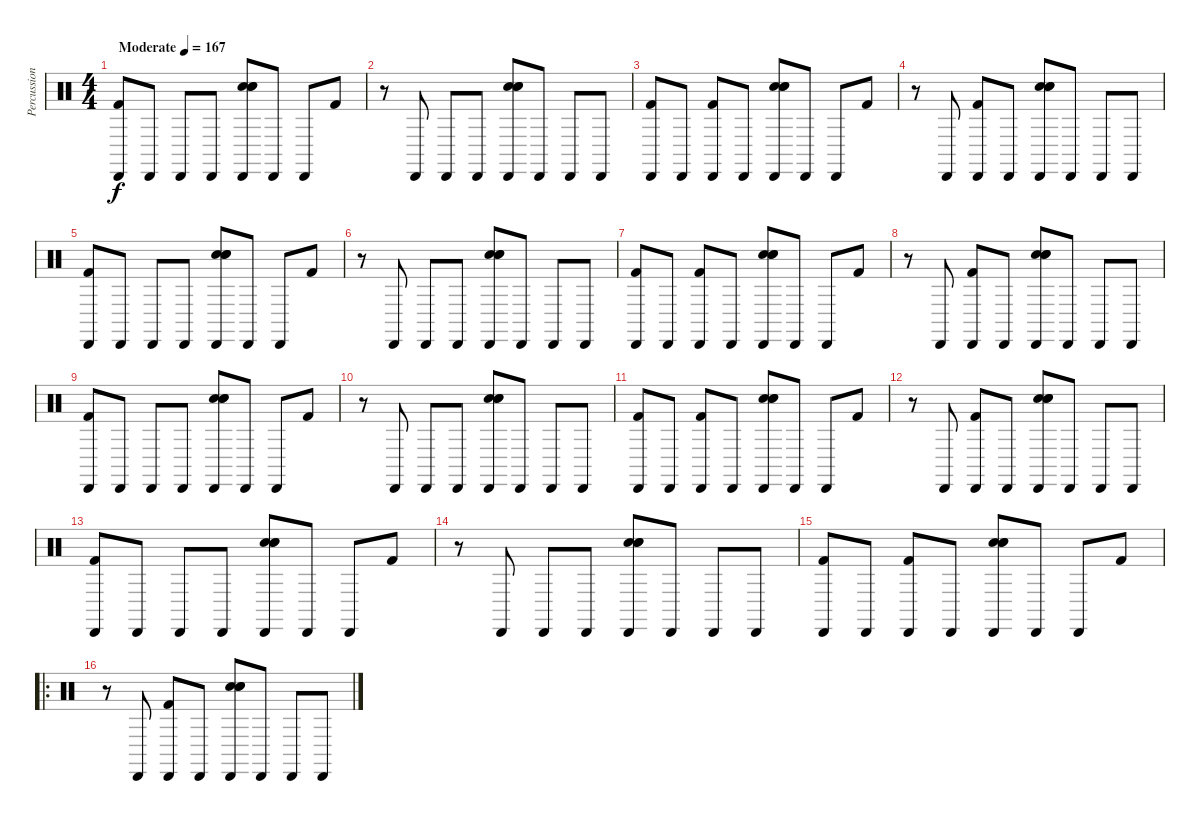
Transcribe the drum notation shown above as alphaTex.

\track ("Percussion" "Percussion") {instrument percussion}
\staff {score}
\articulation defaults
\ts (4 4)
\tempo (167 "Moderate")
\clef neutral
\ks c
("Cabasa (hit)" "Kick (hit) 2").8{dy f} "Cabasa (hit)".8 "Cabasa (hit)".8 "Cabasa (hit)".8 ("Hand Clap (hit)" "Cabasa (hit)" "Electric Snare (hit)" "Snare (hit) 2").8 "Cabasa (hit)".8 "Cabasa (hit)".8 "Kick (hit) 2".8 |
r.8 "Cabasa (hit)".8 "Cabasa (hit)".8 "Cabasa (hit)".8 ("Hand Clap (hit)" "Cabasa (hit)" "Electric Snare (hit)" "Snare (hit) 2").8 "Cabasa (hit)".8 "Cabasa (hit)".8 "Cabasa (hit)".8 |
("Cabasa (hit)" "Kick (hit) 2").8 "Cabasa (hit)".8 ("Cabasa (hit)" "Kick (hit) 2").8 "Cabasa (hit)".8 ("Hand Clap (hit)" "Cabasa (hit)" "Electric Snare (hit)" "Snare (hit) 2").8 "Cabasa (hit)".8 "Cabasa (hit)".8 "Kick (hit) 2".8 |
r.8 "Cabasa (hit)".8 ("Cabasa (hit)" "Kick (hit) 2").8 "Cabasa (hit)".8 ("Hand Clap (hit)" "Cabasa (hit)" "Electric Snare (hit)" "Snare (hit) 2").8 "Cabasa (hit)".8 "Cabasa (hit)".8 "Cabasa (hit)".8 |
("Cabasa (hit)" "Kick (hit) 2").8 "Cabasa (hit)".8 "Cabasa (hit)".8 "Cabasa (hit)".8 ("Hand Clap (hit)" "Cabasa (hit)" "Electric Snare (hit)" "Snare (hit) 2").8 "Cabasa (hit)".8 "Cabasa (hit)".8 "Kick (hit) 2".8 |
r.8 "Cabasa (hit)".8 "Cabasa (hit)".8 "Cabasa (hit)".8 ("Hand Clap (hit)" "Cabasa (hit)" "Electric Snare (hit)" "Snare (hit) 2").8 "Cabasa (hit)".8 "Cabasa (hit)".8 "Cabasa (hit)".8 |
("Cabasa (hit)" "Kick (hit) 2").8 "Cabasa (hit)".8 ("Cabasa (hit)" "Kick (hit) 2").8 "Cabasa (hit)".8 ("Hand Clap (hit)" "Cabasa (hit)" "Electric Snare (hit)" "Snare (hit) 2").8 "Cabasa (hit)".8 "Cabasa (hit)".8 "Kick (hit) 2".8 |
r.8 "Cabasa (hit)".8 ("Cabasa (hit)" "Kick (hit) 2").8 "Cabasa (hit)".8 ("Hand Clap (hit)" "Cabasa (hit)" "Electric Snare (hit)" "Snare (hit) 2").8 "Cabasa (hit)".8 "Cabasa (hit)".8 "Cabasa (hit)".8 |
("Cabasa (hit)" "Kick (hit) 2").8 "Cabasa (hit)".8 "Cabasa (hit)".8 "Cabasa (hit)".8 ("Hand Clap (hit)" "Cabasa (hit)" "Electric Snare (hit)" "Snare (hit) 2").8 "Cabasa (hit)".8 "Cabasa (hit)".8 "Kick (hit) 2".8 |
r.8 "Cabasa (hit)".8 "Cabasa (hit)".8 "Cabasa (hit)".8 ("Hand Clap (hit)" "Cabasa (hit)" "Electric Snare (hit)" "Snare (hit) 2").8 "Cabasa (hit)".8 "Cabasa (hit)".8 "Cabasa (hit)".8 |
("Cabasa (hit)" "Kick (hit) 2").8 "Cabasa (hit)".8 ("Cabasa (hit)" "Kick (hit) 2").8 "Cabasa (hit)".8 ("Hand Clap (hit)" "Cabasa (hit)" "Electric Snare (hit)" "Snare (hit) 2").8 "Cabasa (hit)".8 "Cabasa (hit)".8 "Kick (hit) 2".8 |
r.8 "Cabasa (hit)".8 ("Cabasa (hit)" "Kick (hit) 2").8 "Cabasa (hit)".8 ("Hand Clap (hit)" "Cabasa (hit)" "Electric Snare (hit)" "Snare (hit) 2").8 "Cabasa (hit)".8 "Cabasa (hit)".8 "Cabasa (hit)".8 |
("Cabasa (hit)" "Kick (hit) 2").8 "Cabasa (hit)".8 "Cabasa (hit)".8 "Cabasa (hit)".8 ("Hand Clap (hit)" "Cabasa (hit)" "Electric Snare (hit)" "Snare (hit) 2").8 "Cabasa (hit)".8 "Cabasa (hit)".8 "Kick (hit) 2".8 |
r.8 "Cabasa (hit)".8 "Cabasa (hit)".8 "Cabasa (hit)".8 ("Hand Clap (hit)" "Cabasa (hit)" "Electric Snare (hit)" "Snare (hit) 2").8 "Cabasa (hit)".8 "Cabasa (hit)".8 "Cabasa (hit)".8 |
("Cabasa (hit)" "Kick (hit) 2").8 "Cabasa (hit)".8 ("Cabasa (hit)" "Kick (hit) 2").8 "Cabasa (hit)".8 ("Hand Clap (hit)" "Cabasa (hit)" "Electric Snare (hit)" "Snare (hit) 2").8 "Cabasa (hit)".8 "Cabasa (hit)".8 "Kick (hit) 2".8 |
\ro
r.8 "Cabasa (hit)".8 ("Cabasa (hit)" "Kick (hit) 2").8 "Cabasa (hit)".8 ("Hand Clap (hit)" "Cabasa (hit)" "Electric Snare (hit)" "Snare (hit) 2").8 "Cabasa (hit)".8 "Cabasa (hit)".8 "Cabasa (hit)".8
